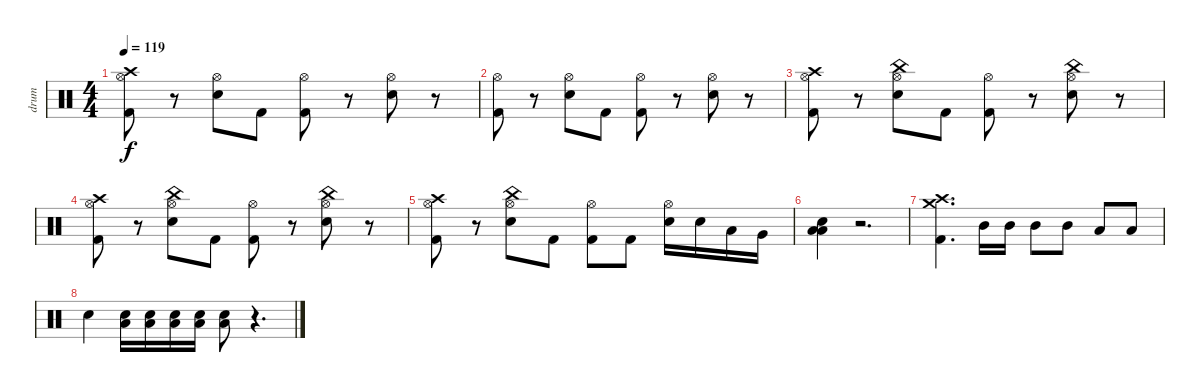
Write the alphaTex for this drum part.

\track ("drum" "drum") {instrument percussion}
\staff {score}
\articulation defaults
\ts (4 4)
\tempo 119
\clef neutral
\ks c
("Crash high (hit)" "Hi-Hat (open)" "Kick (hit) 2").8{dy f} r.8 ("Hi-Hat (open)" "Electric Snare (hit)").8 "Kick (hit) 2".8 ("Hi-Hat (open)" "Kick (hit) 2").8 r.8 ("Hi-Hat (open)" "Electric Snare (hit)").8 r.8 |
("Hi-Hat (open)" "Kick (hit) 2").8 r.8 ("Hi-Hat (open)" "Electric Snare (hit)").8 "Kick (hit) 2".8 ("Hi-Hat (open)" "Kick (hit) 2").8 r.8 ("Hi-Hat (open)" "Electric Snare (hit)").8 r.8 |
("Crash high (hit)" "Hi-Hat (open)" "Kick (hit) 2").8 r.8 ("China (hit)" "Hi-Hat (open)" "Electric Snare (hit)").8 "Kick (hit) 2".8 ("Hi-Hat (open)" "Kick (hit) 2").8 r.8 ("China (hit)" "Hi-Hat (open)" "Electric Snare (hit)").8 r.8 |
("Crash high (hit)" "Hi-Hat (open)" "Kick (hit) 2").8 r.8 ("China (hit)" "Hi-Hat (open)" "Electric Snare (hit)").8 "Kick (hit) 2".8 ("Hi-Hat (open)" "Kick (hit) 2").8 r.8 ("China (hit)" "Hi-Hat (open)" "Electric Snare (hit)").8 r.8 |
("Crash high (hit)" "Hi-Hat (open)" "Kick (hit) 2").8 r.8 ("China (hit)" "Hi-Hat (open)" "Electric Snare (hit)").8 "Kick (hit) 2".8 ("Hi-Hat (open)" "Kick (hit) 2").8 "Kick (hit) 2".8 ("Hi-Hat (open)" "Electric Snare (hit)").16 "Electric Snare (hit)".16 "Low Tom (hit)".16 "Very Low Tom (hit)".16 |
("Low Tom (hit)" "Electric Snare (hit)" "Low Floor Tom (hit)").4 r.2{d} |
("Crash high (hit)" "Crash medium (hit)" "Kick (hit) 2").4{d} "Mid Tom (hit)".16 "Mid Tom (hit)".16 "Mid Tom (hit)".8 "Mid Tom (hit)".8 "Low Tom (hit)".8 "Low Tom (hit)".8 |
"Electric Snare (hit)".4 ("Low Floor Tom (hit)" "Electric Snare (hit)").16 ("Low Floor Tom (hit)" "Electric Snare (hit)").16 ("Low Floor Tom (hit)" "Electric Snare (hit)").16 ("Low Floor Tom (hit)" "Electric Snare (hit)").16 ("Low Floor Tom (hit)" "Electric Snare (hit)").8 r.4{d}
